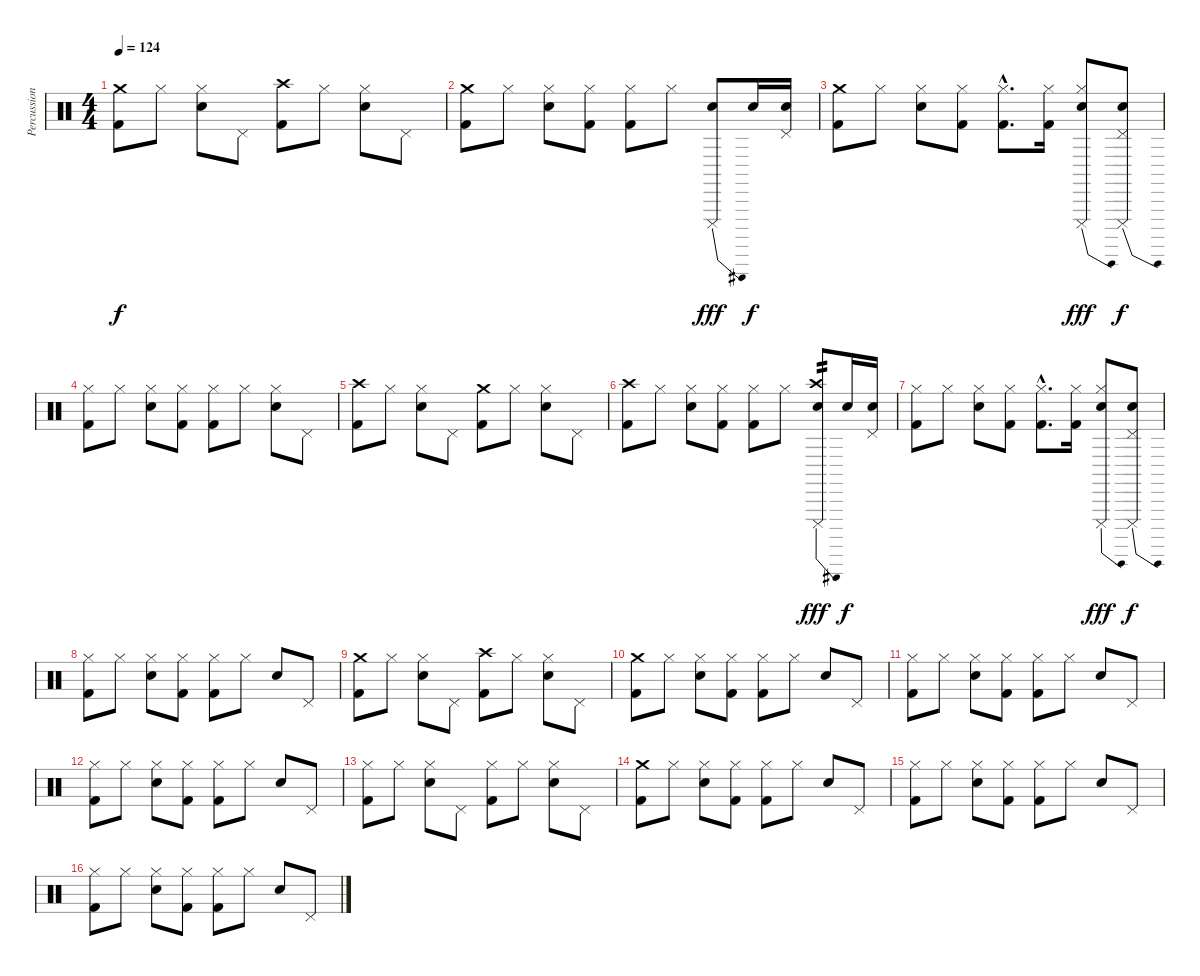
\track ("Percussions" "Percussion") {instrument percussion}
\staff {score}
\articulation defaults
\ts (4 4)
\tempo 124
\clef neutral
\ks c
("Crash medium (hit)" "Kick (hit) 2").8{dy f} "Hi-Hat (closed)".8 ("Hi-Hat (closed)" "Electric Snare (hit)").8 "Pedal Hi-Hat (hit)".8 ("Crash high (hit)" "Kick (hit) 2").8 "Hi-Hat (closed)".8 ("Hi-Hat (closed)" "Electric Snare (hit)").8 "Pedal Hi-Hat (hit)".8 |
("Crash medium (hit)" "Kick (hit) 2").8 "Hi-Hat (closed)".8 ("Hi-Hat (closed)" "Electric Snare (hit)").8 ("Hi-Hat (closed)" "Kick (hit) 2").8 ("Hi-Hat (closed)" "Kick (hit) 2").8 "Hi-Hat (closed)".8 ("Cuica (mute)"{be (bend 0 0 60 4)} "Electric Snare (hit)").8{dy fff} "Electric Snare (hit)".16{dy f} ("Pedal Hi-Hat (hit)" "Electric Snare (hit)").16 |
("Crash medium (hit)" "Kick (hit) 2").8 "Hi-Hat (closed)".8 ("Hi-Hat (closed)" "Electric Snare (hit)").8 ("Hi-Hat (closed)" "Kick (hit) 2").8 ("Hi-Hat (closed)"{hac} "Kick (hit) 2"{hac}).8{d} ("Hi-Hat (closed)" "Kick (hit) 2").16 ("Hi-Hat (closed)" "Cuica (mute)"{be (bend 0 0 60 12)} "Electric Snare (hit)").8{dy fff} ("Pedal Hi-Hat (hit)" "Cuica (mute)"{be (bend 0 0 60 12)} "Electric Snare (hit)").8{dy f} |
("Hi-Hat (closed)" "Kick (hit) 2").8 "Hi-Hat (closed)".8 ("Hi-Hat (closed)" "Electric Snare (hit)").8 ("Hi-Hat (closed)" "Kick (hit) 2").8 ("Hi-Hat (closed)" "Kick (hit) 2").8 "Hi-Hat (closed)".8 ("Hi-Hat (closed)" "Electric Snare (hit)").8 "Pedal Hi-Hat (hit)".8 |
("Crash high (hit)" "Kick (hit) 2").8 "Hi-Hat (closed)".8 ("Hi-Hat (closed)" "Electric Snare (hit)").8 "Pedal Hi-Hat (hit)".8 ("Crash medium (hit)" "Kick (hit) 2").8 "Hi-Hat (closed)".8 ("Hi-Hat (closed)" "Electric Snare (hit)").8 "Pedal Hi-Hat (hit)".8 |
("Crash high (hit)" "Kick (hit) 2").8 "Hi-Hat (closed)".8 ("Hi-Hat (closed)" "Electric Snare (hit)").8 ("Hi-Hat (closed)" "Kick (hit) 2").8 ("Hi-Hat (closed)" "Kick (hit) 2").8 "Hi-Hat (closed)".8 ("Crash high (hit)" "Cuica (mute)"{be (bend 0 0 60 4)} "Electric Snare (hit)").8{tp 2 dy fff} "Electric Snare (hit)".16{dy f} ("Pedal Hi-Hat (hit)" "Electric Snare (hit)").16 |
("Hi-Hat (closed)" "Kick (hit) 2").8 "Hi-Hat (closed)".8 ("Hi-Hat (closed)" "Electric Snare (hit)").8 ("Hi-Hat (closed)" "Kick (hit) 2").8 ("Hi-Hat (closed)"{hac} "Kick (hit) 2"{hac}).8{d} ("Hi-Hat (closed)" "Kick (hit) 2").16 ("Hi-Hat (closed)" "Cuica (mute)"{be (bend 0 0 60 12)} "Electric Snare (hit)").8{dy fff} ("Pedal Hi-Hat (hit)" "Cuica (mute)"{be (bend 0 0 60 12)} "Electric Snare (hit)").8{dy f} |
("Hi-Hat (closed)" "Kick (hit) 2").8 "Hi-Hat (closed)".8 ("Hi-Hat (closed)" "Electric Snare (hit)").8 ("Hi-Hat (closed)" "Kick (hit) 2").8 ("Hi-Hat (closed)" "Kick (hit) 2").8 "Hi-Hat (closed)".8 "Electric Snare (hit)".8 "Pedal Hi-Hat (hit)".8 |
("Crash medium (hit)" "Kick (hit) 2").8 "Hi-Hat (closed)".8 ("Hi-Hat (closed)" "Electric Snare (hit)").8 "Pedal Hi-Hat (hit)".8 ("Crash high (hit)" "Kick (hit) 2").8 "Hi-Hat (closed)".8 ("Hi-Hat (closed)" "Electric Snare (hit)").8 "Pedal Hi-Hat (hit)".8 |
("Crash medium (hit)" "Kick (hit) 2").8 "Hi-Hat (closed)".8 ("Hi-Hat (closed)" "Electric Snare (hit)").8 ("Hi-Hat (closed)" "Kick (hit) 2").8 ("Hi-Hat (closed)" "Kick (hit) 2").8 "Hi-Hat (closed)".8 "Electric Snare (hit)".8 "Pedal Hi-Hat (hit)".8 |
("Hi-Hat (closed)" "Kick (hit) 2").8 "Hi-Hat (closed)".8 ("Hi-Hat (closed)" "Electric Snare (hit)").8 ("Hi-Hat (closed)" "Kick (hit) 2").8 ("Hi-Hat (closed)" "Kick (hit) 2").8 "Hi-Hat (closed)".8 "Electric Snare (hit)".8 "Pedal Hi-Hat (hit)".8 |
("Hi-Hat (closed)" "Kick (hit) 2").8 "Hi-Hat (closed)".8 ("Hi-Hat (closed)" "Electric Snare (hit)").8 ("Hi-Hat (closed)" "Kick (hit) 2").8 ("Hi-Hat (closed)" "Kick (hit) 2").8 "Hi-Hat (closed)".8 "Electric Snare (hit)".8 "Pedal Hi-Hat (hit)".8 |
("Hi-Hat (closed)" "Kick (hit) 2").8 "Hi-Hat (closed)".8 ("Hi-Hat (closed)" "Electric Snare (hit)").8 "Pedal Hi-Hat (hit)".8 ("Hi-Hat (closed)" "Kick (hit) 2").8 "Hi-Hat (closed)".8 ("Hi-Hat (closed)" "Electric Snare (hit)").8 "Pedal Hi-Hat (hit)".8 |
("Crash medium (hit)" "Kick (hit) 2").8 "Hi-Hat (closed)".8 ("Hi-Hat (closed)" "Electric Snare (hit)").8 ("Hi-Hat (closed)" "Kick (hit) 2").8 ("Hi-Hat (closed)" "Kick (hit) 2").8 "Hi-Hat (closed)".8 "Electric Snare (hit)".8 "Pedal Hi-Hat (hit)".8 |
("Hi-Hat (closed)" "Kick (hit) 2").8 "Hi-Hat (closed)".8 ("Hi-Hat (closed)" "Electric Snare (hit)").8 ("Hi-Hat (closed)" "Kick (hit) 2").8 ("Hi-Hat (closed)" "Kick (hit) 2").8 "Hi-Hat (closed)".8 "Electric Snare (hit)".8 "Pedal Hi-Hat (hit)".8 |
("Hi-Hat (closed)" "Kick (hit) 2").8 "Hi-Hat (closed)".8 ("Hi-Hat (closed)" "Electric Snare (hit)").8 ("Hi-Hat (closed)" "Kick (hit) 2").8 ("Hi-Hat (closed)" "Kick (hit) 2").8 "Hi-Hat (closed)".8 "Electric Snare (hit)".8 "Pedal Hi-Hat (hit)".8
